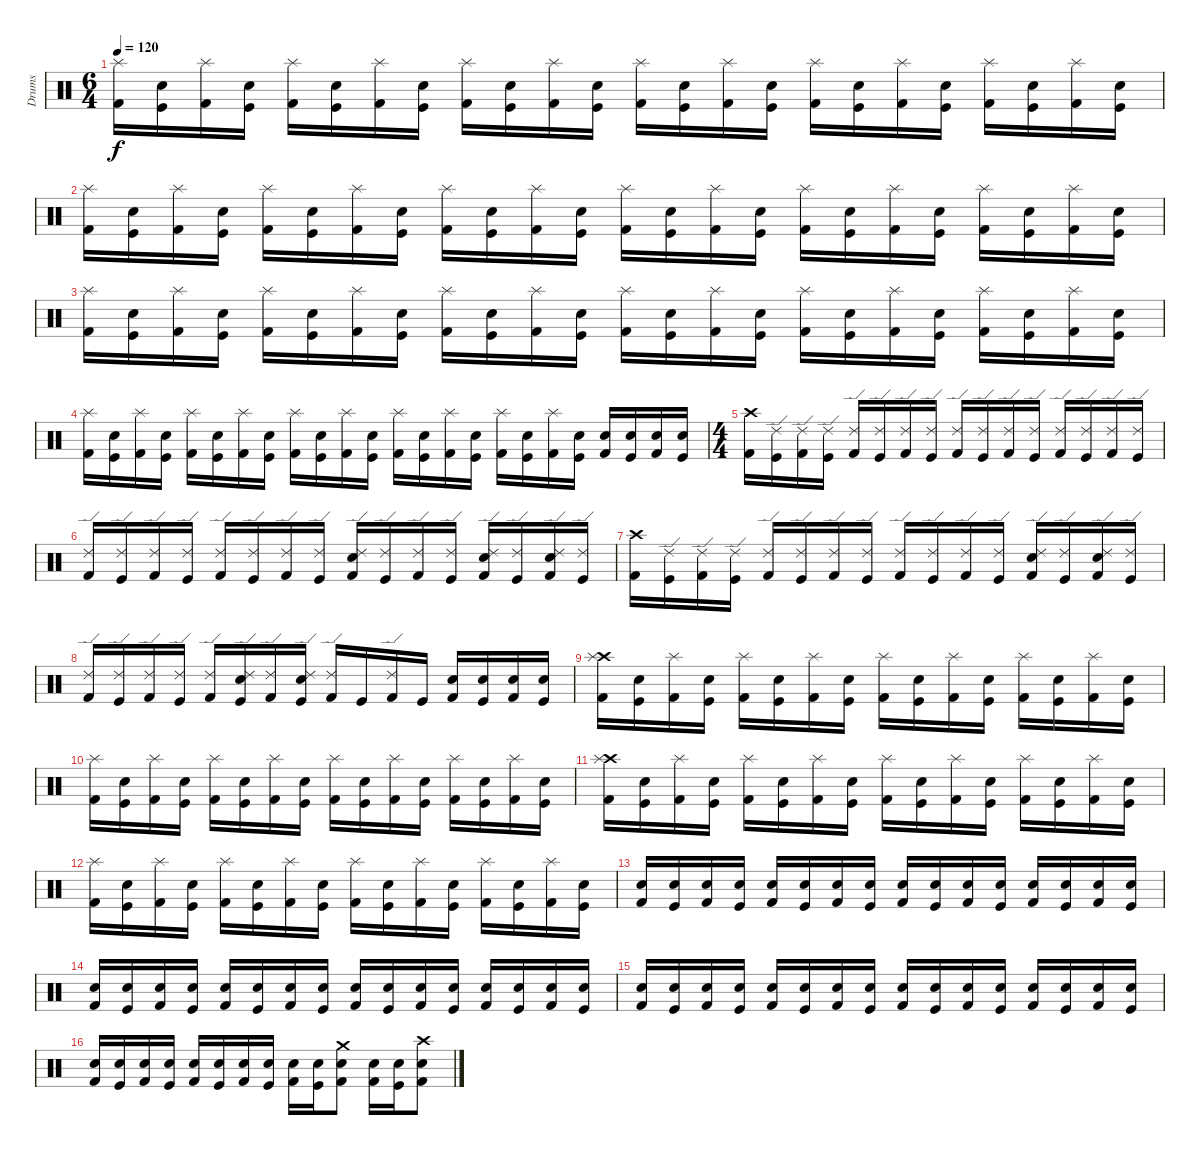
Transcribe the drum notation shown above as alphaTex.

\track ("Drums" "Drums") {instrument percussion}
\staff {score}
\articulation defaults
\ts (6 4)
\tempo 120
\clef neutral
\ks c
("Splash (hit)" "Kick (hit) 2").16{dy f} ("Snare (hit) 2" "Kick (hit)").16 ("Splash (hit)" "Kick (hit) 2").16 ("Snare (hit) 2" "Kick (hit)").16 ("Splash (hit)" "Kick (hit) 2").16 ("Snare (hit) 2" "Kick (hit)").16 ("Splash (hit)" "Kick (hit) 2").16 ("Snare (hit) 2" "Kick (hit)").16 ("Splash (hit)" "Kick (hit) 2").16 ("Snare (hit) 2" "Kick (hit)").16 ("Splash (hit)" "Kick (hit) 2").16 ("Snare (hit) 2" "Kick (hit)").16 ("Splash (hit)" "Kick (hit) 2").16 ("Snare (hit) 2" "Kick (hit)").16 ("Splash (hit)" "Kick (hit) 2").16 ("Snare (hit) 2" "Kick (hit)").16 ("Splash (hit)" "Kick (hit) 2").16 ("Snare (hit) 2" "Kick (hit)").16 ("Splash (hit)" "Kick (hit) 2").16 ("Snare (hit) 2" "Kick (hit)").16 ("Splash (hit)" "Kick (hit) 2").16 ("Snare (hit) 2" "Kick (hit)").16 ("Splash (hit)" "Kick (hit) 2").16 ("Snare (hit) 2" "Kick (hit)").16 |
("Splash (hit)" "Kick (hit) 2").16 ("Snare (hit) 2" "Kick (hit)").16 ("Splash (hit)" "Kick (hit) 2").16 ("Snare (hit) 2" "Kick (hit)").16 ("Splash (hit)" "Kick (hit) 2").16 ("Snare (hit) 2" "Kick (hit)").16 ("Splash (hit)" "Kick (hit) 2").16 ("Snare (hit) 2" "Kick (hit)").16 ("Splash (hit)" "Kick (hit) 2").16 ("Snare (hit) 2" "Kick (hit)").16 ("Splash (hit)" "Kick (hit) 2").16 ("Snare (hit) 2" "Kick (hit)").16 ("Splash (hit)" "Kick (hit) 2").16 ("Snare (hit) 2" "Kick (hit)").16 ("Splash (hit)" "Kick (hit) 2").16 ("Snare (hit) 2" "Kick (hit)").16 ("Splash (hit)" "Kick (hit) 2").16 ("Snare (hit) 2" "Kick (hit)").16 ("Splash (hit)" "Kick (hit) 2").16 ("Snare (hit) 2" "Kick (hit)").16 ("Splash (hit)" "Kick (hit) 2").16 ("Snare (hit) 2" "Kick (hit)").16 ("Splash (hit)" "Kick (hit) 2").16 ("Snare (hit) 2" "Kick (hit)").16 |
("Splash (hit)" "Kick (hit) 2").16 ("Snare (hit) 2" "Kick (hit)").16 ("Splash (hit)" "Kick (hit) 2").16 ("Snare (hit) 2" "Kick (hit)").16 ("Splash (hit)" "Kick (hit) 2").16 ("Snare (hit) 2" "Kick (hit)").16 ("Splash (hit)" "Kick (hit) 2").16 ("Snare (hit) 2" "Kick (hit)").16 ("Splash (hit)" "Kick (hit) 2").16 ("Snare (hit) 2" "Kick (hit)").16 ("Splash (hit)" "Kick (hit) 2").16 ("Snare (hit) 2" "Kick (hit)").16 ("Splash (hit)" "Kick (hit) 2").16 ("Snare (hit) 2" "Kick (hit)").16 ("Splash (hit)" "Kick (hit) 2").16 ("Snare (hit) 2" "Kick (hit)").16 ("Splash (hit)" "Kick (hit) 2").16 ("Snare (hit) 2" "Kick (hit)").16 ("Splash (hit)" "Kick (hit) 2").16 ("Snare (hit) 2" "Kick (hit)").16 ("Splash (hit)" "Kick (hit) 2").16 ("Snare (hit) 2" "Kick (hit)").16 ("Splash (hit)" "Kick (hit) 2").16 ("Snare (hit) 2" "Kick (hit)").16 |
("Splash (hit)" "Kick (hit) 2").16 ("Snare (hit) 2" "Kick (hit)").16 ("Splash (hit)" "Kick (hit) 2").16 ("Snare (hit) 2" "Kick (hit)").16 ("Splash (hit)" "Kick (hit) 2").16 ("Snare (hit) 2" "Kick (hit)").16 ("Splash (hit)" "Kick (hit) 2").16 ("Snare (hit) 2" "Kick (hit)").16 ("Splash (hit)" "Kick (hit) 2").16 ("Snare (hit) 2" "Kick (hit)").16 ("Splash (hit)" "Kick (hit) 2").16 ("Snare (hit) 2" "Kick (hit)").16 ("Splash (hit)" "Kick (hit) 2").16 ("Snare (hit) 2" "Kick (hit)").16 ("Splash (hit)" "Kick (hit) 2").16 ("Snare (hit) 2" "Kick (hit)").16 ("Splash (hit)" "Kick (hit) 2").16 ("Snare (hit) 2" "Kick (hit)").16 ("Splash (hit)" "Kick (hit) 2").16 ("Snare (hit) 2" "Kick (hit)").16 ("Snare (hit) 2" "Kick (hit) 2").16 ("Snare (hit) 2" "Kick (hit)").16 ("Snare (hit) 2" "Kick (hit) 2").16 ("Snare (hit) 2" "Kick (hit)").16 |
\ts (4 4)
("Crash high (hit)" "Kick (hit) 2").16 ("Ride (edge) 2" "Kick (hit)").16 ("Ride (edge) 2" "Kick (hit) 2").16 ("Ride (edge) 2" "Kick (hit)").16 ("Ride (edge) 2" "Kick (hit) 2").16 ("Ride (edge) 2" "Kick (hit)").16 ("Ride (edge) 2" "Kick (hit) 2").16 ("Ride (edge) 2" "Kick (hit)").16 ("Ride (edge) 2" "Kick (hit) 2").16 ("Ride (edge) 2" "Kick (hit)").16 ("Ride (edge) 2" "Kick (hit) 2").16 ("Ride (edge) 2" "Kick (hit)").16 ("Ride (edge) 2" "Kick (hit) 2").16 ("Ride (edge) 2" "Kick (hit)").16 ("Ride (edge) 2" "Kick (hit) 2").16 ("Ride (edge) 2" "Kick (hit)").16 |
("Ride (edge) 2" "Kick (hit) 2").16 ("Ride (edge) 2" "Kick (hit)").16 ("Ride (edge) 2" "Kick (hit) 2").16 ("Ride (edge) 2" "Kick (hit)").16 ("Ride (edge) 2" "Kick (hit) 2").16 ("Ride (edge) 2" "Kick (hit)").16 ("Ride (edge) 2" "Kick (hit) 2").16 ("Ride (edge) 2" "Kick (hit)").16 ("Ride (edge) 2" "Snare (hit) 2" "Kick (hit) 2").16 ("Ride (edge) 2" "Kick (hit)").16 ("Ride (edge) 2" "Kick (hit) 2").16 ("Ride (edge) 2" "Kick (hit)").16 ("Ride (edge) 2" "Snare (hit) 2" "Kick (hit) 2").16 ("Ride (edge) 2" "Kick (hit)").16 ("Ride (edge) 2" "Snare (hit) 2" "Kick (hit) 2").16 ("Ride (edge) 2" "Kick (hit)").16 |
("Crash high (hit)" "Kick (hit) 2").16 ("Ride (edge) 2" "Kick (hit)").16 ("Ride (edge) 2" "Kick (hit) 2").16 ("Ride (edge) 2" "Kick (hit)").16 ("Ride (edge) 2" "Kick (hit) 2").16 ("Ride (edge) 2" "Kick (hit)").16 ("Ride (edge) 2" "Kick (hit) 2").16 ("Ride (edge) 2" "Kick (hit)").16 ("Ride (edge) 2" "Kick (hit) 2").16 ("Ride (edge) 2" "Kick (hit)").16 ("Ride (edge) 2" "Kick (hit) 2").16 ("Ride (edge) 2" "Kick (hit)").16 ("Ride (edge) 2" "Snare (hit) 2" "Kick (hit) 2").16 ("Ride (edge) 2" "Kick (hit)").16 ("Ride (edge) 2" "Snare (hit) 2" "Kick (hit) 2").16 ("Ride (edge) 2" "Kick (hit)").16 |
("Ride (edge) 2" "Kick (hit) 2").16 ("Ride (edge) 2" "Kick (hit)").16 ("Ride (edge) 2" "Kick (hit) 2").16 ("Ride (edge) 2" "Kick (hit)").16 ("Ride (edge) 2" "Kick (hit) 2").16 ("Ride (edge) 2" "Snare (hit) 2" "Kick (hit)").16 ("Ride (edge) 2" "Kick (hit) 2").16 ("Ride (edge) 2" "Snare (hit) 2" "Kick (hit)").16 ("Ride (edge) 2" "Kick (hit) 2").16 "Kick (hit)".16 ("Ride (edge) 2" "Kick (hit) 2").16 "Kick (hit)".16 ("Snare (hit) 2" "Kick (hit) 2").16 ("Snare (hit) 2" "Kick (hit)").16 ("Snare (hit) 2" "Kick (hit) 2").16 ("Snare (hit) 2" "Kick (hit)").16 |
("Crash high (hit)" "Splash (hit)" "Kick (hit) 2").16 ("Snare (hit) 2" "Kick (hit)").16 ("Splash (hit)" "Kick (hit) 2").16 ("Snare (hit) 2" "Kick (hit)").16 ("Splash (hit)" "Kick (hit) 2").16 ("Snare (hit) 2" "Kick (hit)").16 ("Splash (hit)" "Kick (hit) 2").16 ("Snare (hit) 2" "Kick (hit)").16 ("Splash (hit)" "Kick (hit) 2").16 ("Snare (hit) 2" "Kick (hit)").16 ("Splash (hit)" "Kick (hit) 2").16 ("Snare (hit) 2" "Kick (hit)").16 ("Splash (hit)" "Kick (hit) 2").16 ("Snare (hit) 2" "Kick (hit)").16 ("Splash (hit)" "Kick (hit) 2").16 ("Snare (hit) 2" "Kick (hit)").16 |
("Splash (hit)" "Kick (hit) 2").16 ("Snare (hit) 2" "Kick (hit)").16 ("Splash (hit)" "Kick (hit) 2").16 ("Snare (hit) 2" "Kick (hit)").16 ("Splash (hit)" "Kick (hit) 2").16 ("Snare (hit) 2" "Kick (hit)").16 ("Splash (hit)" "Kick (hit) 2").16 ("Snare (hit) 2" "Kick (hit)").16 ("Splash (hit)" "Kick (hit) 2").16 ("Snare (hit) 2" "Kick (hit)").16 ("Splash (hit)" "Kick (hit) 2").16 ("Snare (hit) 2" "Kick (hit)").16 ("Splash (hit)" "Kick (hit) 2").16 ("Snare (hit) 2" "Kick (hit)").16 ("Splash (hit)" "Kick (hit) 2").16 ("Snare (hit) 2" "Kick (hit)").16 |
("Crash high (hit)" "Splash (hit)" "Kick (hit) 2").16 ("Snare (hit) 2" "Kick (hit)").16 ("Splash (hit)" "Kick (hit) 2").16 ("Snare (hit) 2" "Kick (hit)").16 ("Splash (hit)" "Kick (hit) 2").16 ("Snare (hit) 2" "Kick (hit)").16 ("Splash (hit)" "Kick (hit) 2").16 ("Snare (hit) 2" "Kick (hit)").16 ("Splash (hit)" "Kick (hit) 2").16 ("Snare (hit) 2" "Kick (hit)").16 ("Splash (hit)" "Kick (hit) 2").16 ("Snare (hit) 2" "Kick (hit)").16 ("Splash (hit)" "Kick (hit) 2").16 ("Snare (hit) 2" "Kick (hit)").16 ("Splash (hit)" "Kick (hit) 2").16 ("Snare (hit) 2" "Kick (hit)").16 |
("Splash (hit)" "Kick (hit) 2").16 ("Snare (hit) 2" "Kick (hit)").16 ("Splash (hit)" "Kick (hit) 2").16 ("Snare (hit) 2" "Kick (hit)").16 ("Splash (hit)" "Kick (hit) 2").16 ("Snare (hit) 2" "Kick (hit)").16 ("Splash (hit)" "Kick (hit) 2").16 ("Snare (hit) 2" "Kick (hit)").16 ("Splash (hit)" "Kick (hit) 2").16 ("Snare (hit) 2" "Kick (hit)").16 ("Splash (hit)" "Kick (hit) 2").16 ("Snare (hit) 2" "Kick (hit)").16 ("Splash (hit)" "Kick (hit) 2").16 ("Snare (hit) 2" "Kick (hit)").16 ("Splash (hit)" "Kick (hit) 2").16 ("Snare (hit) 2" "Kick (hit)").16 |
("Snare (hit) 2" "Kick (hit) 2").16 ("Snare (hit) 2" "Kick (hit)").16 ("Snare (hit) 2" "Kick (hit) 2").16 ("Snare (hit) 2" "Kick (hit)").16 ("Snare (hit) 2" "Kick (hit) 2").16 ("Snare (hit) 2" "Kick (hit)").16 ("Snare (hit) 2" "Kick (hit) 2").16 ("Snare (hit) 2" "Kick (hit)").16 ("Snare (hit) 2" "Kick (hit) 2").16 ("Snare (hit) 2" "Kick (hit)").16 ("Snare (hit) 2" "Kick (hit) 2").16 ("Snare (hit) 2" "Kick (hit)").16 ("Snare (hit) 2" "Kick (hit) 2").16 ("Snare (hit) 2" "Kick (hit)").16 ("Snare (hit) 2" "Kick (hit) 2").16 ("Snare (hit) 2" "Kick (hit)").16 |
("Snare (hit) 2" "Kick (hit) 2").16 ("Snare (hit) 2" "Kick (hit)").16 ("Snare (hit) 2" "Kick (hit) 2").16 ("Snare (hit) 2" "Kick (hit)").16 ("Snare (hit) 2" "Kick (hit) 2").16 ("Snare (hit) 2" "Kick (hit)").16 ("Snare (hit) 2" "Kick (hit) 2").16 ("Snare (hit) 2" "Kick (hit)").16 ("Snare (hit) 2" "Kick (hit) 2").16 ("Snare (hit) 2" "Kick (hit)").16 ("Snare (hit) 2" "Kick (hit) 2").16 ("Snare (hit) 2" "Kick (hit)").16 ("Snare (hit) 2" "Kick (hit) 2").16 ("Snare (hit) 2" "Kick (hit)").16 ("Snare (hit) 2" "Kick (hit) 2").16 ("Snare (hit) 2" "Kick (hit)").16 |
("Snare (hit) 2" "Kick (hit) 2").16 ("Snare (hit) 2" "Kick (hit)").16 ("Snare (hit) 2" "Kick (hit) 2").16 ("Snare (hit) 2" "Kick (hit)").16 ("Snare (hit) 2" "Kick (hit) 2").16 ("Snare (hit) 2" "Kick (hit)").16 ("Snare (hit) 2" "Kick (hit) 2").16 ("Snare (hit) 2" "Kick (hit)").16 ("Snare (hit) 2" "Kick (hit) 2").16 ("Snare (hit) 2" "Kick (hit)").16 ("Snare (hit) 2" "Kick (hit) 2").16 ("Snare (hit) 2" "Kick (hit)").16 ("Snare (hit) 2" "Kick (hit) 2").16 ("Snare (hit) 2" "Kick (hit)").16 ("Snare (hit) 2" "Kick (hit) 2").16 ("Snare (hit) 2" "Kick (hit)").16 |
("Snare (hit) 2" "Kick (hit) 2").16 ("Snare (hit) 2" "Kick (hit)").16 ("Snare (hit) 2" "Kick (hit) 2").16 ("Snare (hit) 2" "Kick (hit)").16 ("Snare (hit) 2" "Kick (hit) 2").16 ("Snare (hit) 2" "Kick (hit)").16 ("Snare (hit) 2" "Kick (hit) 2").16 ("Snare (hit) 2" "Kick (hit)").16 ("Snare (hit) 2" "Kick (hit) 2").16 ("Snare (hit) 2" "Kick (hit)").16 ("Crash medium (hit)" "Snare (hit) 2" "Kick (hit) 2").8 ("Snare (hit) 2" "Kick (hit) 2").16 ("Snare (hit) 2" "Kick (hit)").16 ("Crash high (hit)" "Snare (hit) 2" "Kick (hit) 2").8
